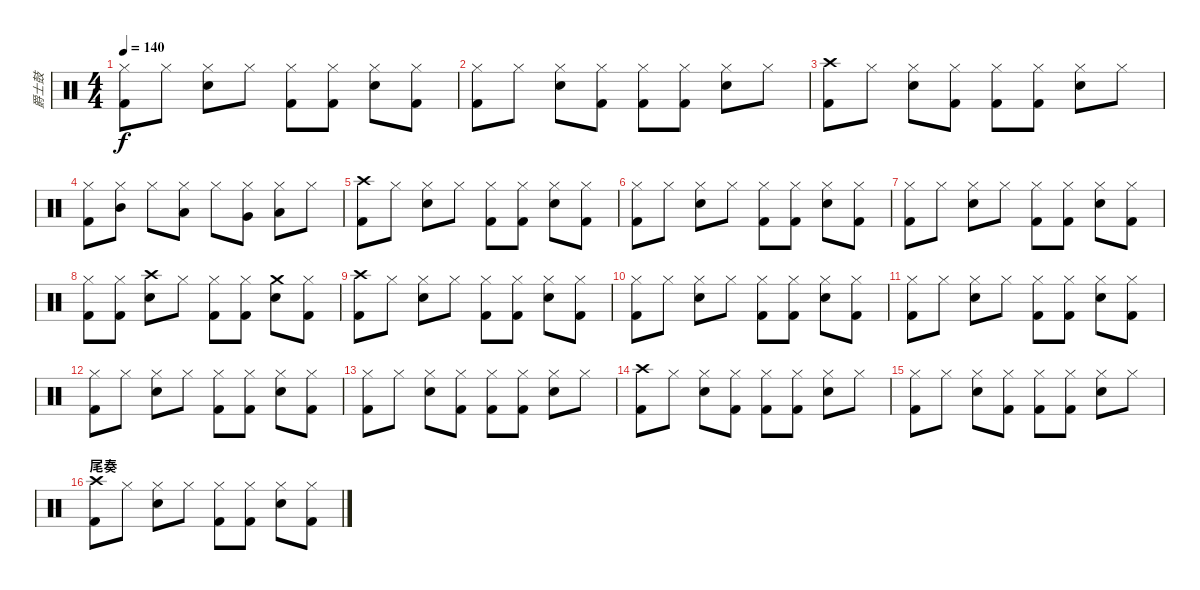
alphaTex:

\track ("爵士鼓" "爵士鼓") {instrument percussion}
\staff {score}
\articulation defaults
\ts (4 4)
\tempo 140
\clef neutral
\ks c
("Hi-Hat (closed)" "Kick (hit) 2").8{dy f} "Hi-Hat (closed)".8 ("Hi-Hat (closed)" "Electric Snare (hit)").8 "Hi-Hat (closed)".8 ("Hi-Hat (closed)" "Kick (hit) 2").8 ("Hi-Hat (closed)" "Kick (hit) 2").8 ("Hi-Hat (closed)" "Electric Snare (hit)").8 ("Hi-Hat (closed)" "Kick (hit) 2").8 |
("Hi-Hat (closed)" "Kick (hit) 2").8 "Hi-Hat (closed)".8 ("Hi-Hat (closed)" "Electric Snare (hit)").8 ("Hi-Hat (closed)" "Kick (hit) 2").8 ("Hi-Hat (closed)" "Kick (hit) 2").8 ("Hi-Hat (closed)" "Kick (hit) 2").8 ("Hi-Hat (closed)" "Electric Snare (hit)").8 "Hi-Hat (closed)".8 |
("Crash high (hit)" "Kick (hit) 2").8 "Hi-Hat (closed)".8 ("Hi-Hat (closed)" "Electric Snare (hit)").8 ("Hi-Hat (closed)" "Kick (hit) 2").8 ("Hi-Hat (closed)" "Kick (hit) 2").8 ("Hi-Hat (closed)" "Kick (hit) 2").8 ("Hi-Hat (closed)" "Electric Snare (hit)").8 "Hi-Hat (closed)".8 |
("Hi-Hat (closed)" "Kick (hit) 2").8 ("Hi-Hat (closed)" "Mid Tom (hit)").8 "Hi-Hat (closed)".8 ("Hi-Hat (closed)" "Low Tom (hit)").8 "Hi-Hat (closed)".8 ("Hi-Hat (closed)" "Very Low Tom (hit)").8 ("Hi-Hat (closed)" "Low Floor Tom (hit)").8 "Hi-Hat (closed)".8 |
("Crash high (hit)" "Kick (hit) 2").8 "Hi-Hat (closed)".8 ("Hi-Hat (closed)" "Electric Snare (hit)").8 "Hi-Hat (closed)".8 ("Hi-Hat (closed)" "Kick (hit) 2").8 ("Hi-Hat (closed)" "Kick (hit) 2").8 ("Hi-Hat (closed)" "Electric Snare (hit)").8 ("Hi-Hat (closed)" "Kick (hit) 2").8 |
("Hi-Hat (closed)" "Kick (hit) 2").8 "Hi-Hat (closed)".8 ("Hi-Hat (closed)" "Electric Snare (hit)").8 "Hi-Hat (closed)".8 ("Hi-Hat (closed)" "Kick (hit) 2").8 ("Hi-Hat (closed)" "Kick (hit) 2").8 ("Hi-Hat (closed)" "Electric Snare (hit)").8 ("Hi-Hat (closed)" "Kick (hit) 2").8 |
("Hi-Hat (closed)" "Kick (hit) 2").8 "Hi-Hat (closed)".8 ("Hi-Hat (closed)" "Electric Snare (hit)").8 "Hi-Hat (closed)".8 ("Hi-Hat (closed)" "Kick (hit) 2").8 ("Hi-Hat (closed)" "Kick (hit) 2").8 ("Hi-Hat (closed)" "Electric Snare (hit)").8 ("Hi-Hat (closed)" "Kick (hit) 2").8 |
("Hi-Hat (closed)" "Kick (hit) 2").8 ("Hi-Hat (closed)" "Kick (hit) 2").8 ("Crash high (hit)" "Electric Snare (hit)").8 "Hi-Hat (closed)".8 ("Hi-Hat (closed)" "Kick (hit) 2").8 ("Hi-Hat (closed)" "Kick (hit) 2").8 ("Crash medium (hit)" "Electric Snare (hit)").8 ("Hi-Hat (closed)" "Kick (hit) 2").8 |
("Crash high (hit)" "Kick (hit) 2").8 "Hi-Hat (closed)".8 ("Hi-Hat (closed)" "Electric Snare (hit)").8 "Hi-Hat (closed)".8 ("Hi-Hat (closed)" "Kick (hit) 2").8 ("Hi-Hat (closed)" "Kick (hit) 2").8 ("Hi-Hat (closed)" "Electric Snare (hit)").8 ("Hi-Hat (closed)" "Kick (hit) 2").8 |
("Hi-Hat (closed)" "Kick (hit) 2").8 "Hi-Hat (closed)".8 ("Hi-Hat (closed)" "Electric Snare (hit)").8 "Hi-Hat (closed)".8 ("Hi-Hat (closed)" "Kick (hit) 2").8 ("Hi-Hat (closed)" "Kick (hit) 2").8 ("Hi-Hat (closed)" "Electric Snare (hit)").8 ("Hi-Hat (closed)" "Kick (hit) 2").8 |
("Hi-Hat (closed)" "Kick (hit) 2").8 "Hi-Hat (closed)".8 ("Hi-Hat (closed)" "Electric Snare (hit)").8 "Hi-Hat (closed)".8 ("Hi-Hat (closed)" "Kick (hit) 2").8 ("Hi-Hat (closed)" "Kick (hit) 2").8 ("Hi-Hat (closed)" "Electric Snare (hit)").8 ("Hi-Hat (closed)" "Kick (hit) 2").8 |
("Hi-Hat (closed)" "Kick (hit) 2").8 "Hi-Hat (closed)".8 ("Hi-Hat (closed)" "Electric Snare (hit)").8 "Hi-Hat (closed)".8 ("Hi-Hat (closed)" "Kick (hit) 2").8 ("Hi-Hat (closed)" "Kick (hit) 2").8 ("Hi-Hat (closed)" "Electric Snare (hit)").8 ("Hi-Hat (closed)" "Kick (hit) 2").8 |
("Hi-Hat (closed)" "Kick (hit) 2").8 "Hi-Hat (closed)".8 ("Hi-Hat (closed)" "Electric Snare (hit)").8 ("Hi-Hat (closed)" "Kick (hit) 2").8 ("Hi-Hat (closed)" "Kick (hit) 2").8 ("Hi-Hat (closed)" "Kick (hit) 2").8 ("Hi-Hat (closed)" "Electric Snare (hit)").8 "Hi-Hat (closed)".8 |
("Crash high (hit)" "Kick (hit) 2").8 "Hi-Hat (closed)".8 ("Hi-Hat (closed)" "Electric Snare (hit)").8 ("Hi-Hat (closed)" "Kick (hit) 2").8 ("Hi-Hat (closed)" "Kick (hit) 2").8 ("Hi-Hat (closed)" "Kick (hit) 2").8 ("Hi-Hat (closed)" "Electric Snare (hit)").8 "Hi-Hat (closed)".8 |
("Hi-Hat (closed)" "Kick (hit) 2").8 "Hi-Hat (closed)".8 ("Hi-Hat (closed)" "Electric Snare (hit)").8 ("Hi-Hat (closed)" "Kick (hit) 2").8 ("Hi-Hat (closed)" "Kick (hit) 2").8 ("Hi-Hat (closed)" "Kick (hit) 2").8 ("Hi-Hat (closed)" "Electric Snare (hit)").8 "Hi-Hat (closed)".8 |
\section ("" "尾奏")
("Crash high (hit)" "Kick (hit) 2").8 "Hi-Hat (closed)".8 ("Hi-Hat (closed)" "Electric Snare (hit)").8 "Hi-Hat (closed)".8 ("Hi-Hat (closed)" "Kick (hit) 2").8 ("Hi-Hat (closed)" "Kick (hit) 2").8 ("Hi-Hat (closed)" "Electric Snare (hit)").8 ("Hi-Hat (closed)" "Kick (hit) 2").8
